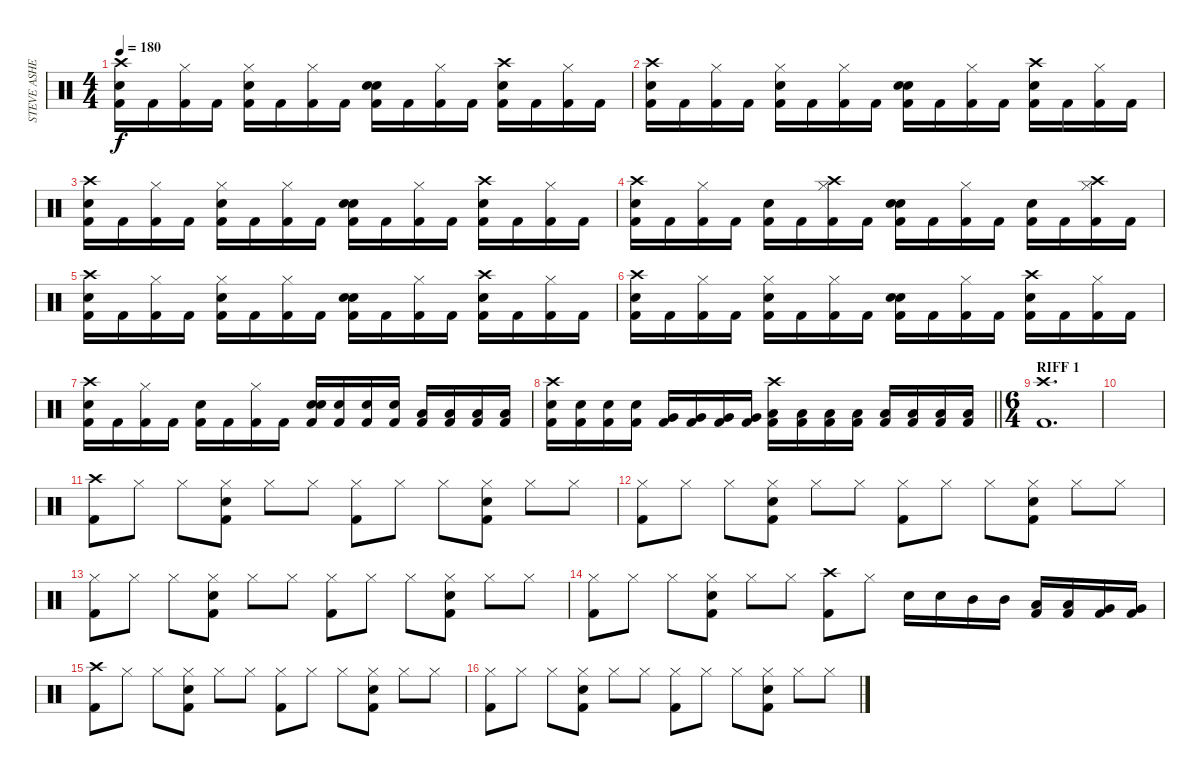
\track ("STEVE ASHEIM" "STEVE ASHE") {instrument percussion}
\staff {score}
\articulation defaults
\ts (4 4)
\tempo 180
\clef neutral
\ks c
("Crash high (hit)" "Snare (hit) 2" "Kick (hit) 2").16{dy f} "Kick (hit) 2".16 ("Hi-Hat (closed)" "Kick (hit) 2").16 "Kick (hit) 2".16 ("Snare (hit) 2" "Hi-Hat (closed)" "Kick (hit) 2").16 "Kick (hit) 2".16 ("Hi-Hat (closed)" "Kick (hit) 2").16 "Kick (hit) 2".16 ("Electric Snare (hit)" "Snare (hit) 2" "Kick (hit) 2").16 "Kick (hit) 2".16 ("Hi-Hat (closed)" "Kick (hit) 2").16 "Kick (hit) 2".16 ("Crash high (hit)" "Snare (hit) 2" "Kick (hit) 2").16 "Kick (hit) 2".16 ("Hi-Hat (closed)" "Kick (hit) 2").16 "Kick (hit) 2".16 |
("Crash high (hit)" "Snare (hit) 2" "Kick (hit) 2").16 "Kick (hit) 2".16 ("Hi-Hat (closed)" "Kick (hit) 2").16 "Kick (hit) 2".16 ("Snare (hit) 2" "Hi-Hat (closed)" "Kick (hit) 2").16 "Kick (hit) 2".16 ("Hi-Hat (closed)" "Kick (hit) 2").16 "Kick (hit) 2".16 ("Electric Snare (hit)" "Snare (hit) 2" "Kick (hit) 2").16 "Kick (hit) 2".16 ("Hi-Hat (closed)" "Kick (hit) 2").16 "Kick (hit) 2".16 ("Crash high (hit)" "Snare (hit) 2" "Kick (hit) 2").16 "Kick (hit) 2".16 ("Hi-Hat (closed)" "Kick (hit) 2").16 "Kick (hit) 2".16 |
("Crash high (hit)" "Snare (hit) 2" "Kick (hit) 2").16 "Kick (hit) 2".16 ("Hi-Hat (closed)" "Kick (hit) 2").16 "Kick (hit) 2".16 ("Snare (hit) 2" "Hi-Hat (closed)" "Kick (hit) 2").16 "Kick (hit) 2".16 ("Hi-Hat (closed)" "Kick (hit) 2").16 "Kick (hit) 2".16 ("Electric Snare (hit)" "Snare (hit) 2" "Kick (hit) 2").16 "Kick (hit) 2".16 ("Hi-Hat (closed)" "Kick (hit) 2").16 "Kick (hit) 2".16 ("Crash high (hit)" "Snare (hit) 2" "Kick (hit) 2").16 "Kick (hit) 2".16 ("Hi-Hat (closed)" "Kick (hit) 2").16 "Kick (hit) 2".16 |
("Crash high (hit)" "Snare (hit) 2" "Kick (hit) 2").16 "Kick (hit) 2".16 ("Hi-Hat (closed)" "Kick (hit) 2").16 "Kick (hit) 2".16 ("Snare (hit) 2" "Kick (hit) 2").16 "Kick (hit) 2".16 ("Crash high (hit)" "Hi-Hat (closed)" "Kick (hit) 2").16 "Kick (hit) 2".16 ("Electric Snare (hit)" "Snare (hit) 2" "Kick (hit) 2").16 "Kick (hit) 2".16 ("Hi-Hat (closed)" "Kick (hit) 2").16 "Kick (hit) 2".16 ("Snare (hit) 2" "Kick (hit) 2").16 "Kick (hit) 2".16 ("Crash high (hit)" "Hi-Hat (closed)" "Kick (hit) 2").16 "Kick (hit) 2".16 |
("Crash high (hit)" "Snare (hit) 2" "Kick (hit) 2").16 "Kick (hit) 2".16 ("Hi-Hat (closed)" "Kick (hit) 2").16 "Kick (hit) 2".16 ("Snare (hit) 2" "Hi-Hat (closed)" "Kick (hit) 2").16 "Kick (hit) 2".16 ("Hi-Hat (closed)" "Kick (hit) 2").16 "Kick (hit) 2".16 ("Electric Snare (hit)" "Snare (hit) 2" "Kick (hit) 2").16 "Kick (hit) 2".16 ("Hi-Hat (closed)" "Kick (hit) 2").16 "Kick (hit) 2".16 ("Crash high (hit)" "Snare (hit) 2" "Kick (hit) 2").16 "Kick (hit) 2".16 ("Hi-Hat (closed)" "Kick (hit) 2").16 "Kick (hit) 2".16 |
("Crash high (hit)" "Snare (hit) 2" "Kick (hit) 2").16 "Kick (hit) 2".16 ("Hi-Hat (closed)" "Kick (hit) 2").16 "Kick (hit) 2".16 ("Snare (hit) 2" "Hi-Hat (closed)" "Kick (hit) 2").16 "Kick (hit) 2".16 ("Hi-Hat (closed)" "Kick (hit) 2").16 "Kick (hit) 2".16 ("Electric Snare (hit)" "Snare (hit) 2" "Kick (hit) 2").16 "Kick (hit) 2".16 ("Hi-Hat (closed)" "Kick (hit) 2").16 "Kick (hit) 2".16 ("Crash high (hit)" "Snare (hit) 2" "Kick (hit) 2").16 "Kick (hit) 2".16 ("Hi-Hat (closed)" "Kick (hit) 2").16 "Kick (hit) 2".16 |
("Crash high (hit)" "Snare (hit) 2" "Kick (hit) 2").16 "Kick (hit) 2".16 ("Hi-Hat (closed)" "Kick (hit) 2").16 "Kick (hit) 2".16 ("Snare (hit) 2" "Kick (hit) 2").16 "Kick (hit) 2".16 ("Hi-Hat (closed)" "Kick (hit) 2").16 "Kick (hit) 2".16 ("Electric Snare (hit)" "Snare (hit) 2" "Kick (hit) 2").16 ("Snare (hit) 2" "Kick (hit) 2").16 ("Snare (hit) 2" "Kick (hit) 2").16 ("Snare (hit) 2" "Kick (hit) 2").16 ("Low Floor Tom (hit)" "Kick (hit) 2").16 ("Low Floor Tom (hit)" "Kick (hit) 2").16 ("Low Floor Tom (hit)" "Kick (hit) 2").16 ("Low Floor Tom (hit)" "Kick (hit) 2").16 |
\barLineRight lightlight
("Crash high (hit)" "Snare (hit) 2" "Kick (hit) 2").16 ("Snare (hit) 2" "Kick (hit) 2").16 ("Snare (hit) 2" "Kick (hit) 2").16 ("Snare (hit) 2" "Kick (hit) 2").16 ("Very Low Tom (hit)" "Kick (hit) 2").16 ("Very Low Tom (hit)" "Kick (hit) 2").16 ("Very Low Tom (hit)" "Kick (hit) 2").16 ("Very Low Tom (hit)" "Kick (hit) 2").16 ("Crash high (hit)" "Low Tom (hit)" "Kick (hit) 2").16 ("Low Tom (hit)" "Kick (hit) 2").16 ("Low Tom (hit)" "Kick (hit) 2").16 ("Low Tom (hit)" "Kick (hit) 2").16 ("Low Floor Tom (hit)" "Kick (hit) 2").16 ("Low Floor Tom (hit)" "Kick (hit) 2").16 ("Low Floor Tom (hit)" "Kick (hit) 2").16 ("Low Floor Tom (hit)" "Kick (hit) 2").16 |
\ts (6 4)
\section ("" "RIFF 1")
("Crash high (hit)" "Kick (hit) 2").1{d} |
|
("Crash high (hit)" "Kick (hit) 2").8 "Hi-Hat (closed)".8 "Hi-Hat (closed)".8 ("Hi-Hat (closed)" "Snare (hit) 2" "Kick (hit) 2").8 "Hi-Hat (closed)".8 "Hi-Hat (closed)".8 ("Hi-Hat (closed)" "Kick (hit) 2").8 "Hi-Hat (closed)".8 "Hi-Hat (closed)".8 ("Hi-Hat (closed)" "Snare (hit) 2" "Kick (hit) 2").8 "Hi-Hat (closed)".8 "Hi-Hat (closed)".8 |
("Hi-Hat (closed)" "Kick (hit) 2").8 "Hi-Hat (closed)".8 "Hi-Hat (closed)".8 ("Hi-Hat (closed)" "Snare (hit) 2" "Kick (hit) 2").8 "Hi-Hat (closed)".8 "Hi-Hat (closed)".8 ("Hi-Hat (closed)" "Kick (hit) 2").8 "Hi-Hat (closed)".8 "Hi-Hat (closed)".8 ("Hi-Hat (closed)" "Snare (hit) 2" "Kick (hit) 2").8 "Hi-Hat (closed)".8 "Hi-Hat (closed)".8 |
("Hi-Hat (closed)" "Kick (hit) 2").8 "Hi-Hat (closed)".8 "Hi-Hat (closed)".8 ("Hi-Hat (closed)" "Snare (hit) 2" "Kick (hit) 2").8 "Hi-Hat (closed)".8 "Hi-Hat (closed)".8 ("Hi-Hat (closed)" "Kick (hit) 2").8 "Hi-Hat (closed)".8 "Hi-Hat (closed)".8 ("Hi-Hat (closed)" "Snare (hit) 2" "Kick (hit) 2").8 "Hi-Hat (closed)".8 "Hi-Hat (closed)".8 |
("Hi-Hat (closed)" "Kick (hit) 2").8 "Hi-Hat (closed)".8 "Hi-Hat (closed)".8 ("Hi-Hat (closed)" "Snare (hit) 2" "Kick (hit) 2").8 "Hi-Hat (closed)".8 "Hi-Hat (closed)".8 ("Crash high (hit)" "Kick (hit) 2").8 "Hi-Hat (closed)".8 "Snare (hit) 2".16 "Snare (hit) 2".16 "Mid Tom (hit)".16 "Mid Tom (hit)".16 ("Low Tom (hit)" "Kick (hit) 2").16 ("Low Tom (hit)" "Kick (hit) 2").16 ("Very Low Tom (hit)" "Kick (hit) 2").16 ("Very Low Tom (hit)" "Kick (hit) 2").16 |
("Crash high (hit)" "Kick (hit) 2").8 "Hi-Hat (closed)".8 "Hi-Hat (closed)".8 ("Hi-Hat (closed)" "Snare (hit) 2" "Kick (hit) 2").8 "Hi-Hat (closed)".8 "Hi-Hat (closed)".8 ("Hi-Hat (closed)" "Kick (hit) 2").8 "Hi-Hat (closed)".8 "Hi-Hat (closed)".8 ("Hi-Hat (closed)" "Snare (hit) 2" "Kick (hit) 2").8 "Hi-Hat (closed)".8 "Hi-Hat (closed)".8 |
("Hi-Hat (closed)" "Kick (hit) 2").8 "Hi-Hat (closed)".8 "Hi-Hat (closed)".8 ("Hi-Hat (closed)" "Snare (hit) 2" "Kick (hit) 2").8 "Hi-Hat (closed)".8 "Hi-Hat (closed)".8 ("Hi-Hat (closed)" "Kick (hit) 2").8 "Hi-Hat (closed)".8 "Hi-Hat (closed)".8 ("Hi-Hat (closed)" "Snare (hit) 2" "Kick (hit) 2").8 "Hi-Hat (closed)".8 "Hi-Hat (closed)".8
